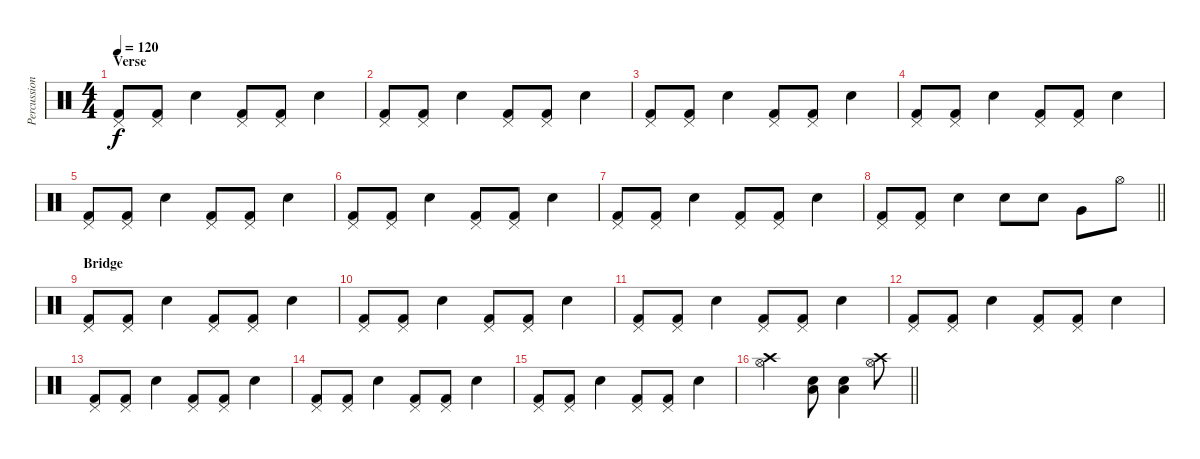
\track ("Percussion" "Percussion") {instrument percussion}
\staff {score}
\articulation defaults
\ts (4 4)
\section ("" "Verse")
\tempo 120
\clef neutral
\ks c
("Kick (hit) 2" "Pedal Hi-Hat (hit)").8{dy f} ("Kick (hit) 2" "Pedal Hi-Hat (hit)").8 "Electric Snare (hit)".4 ("Kick (hit) 2" "Pedal Hi-Hat (hit)").8 ("Kick (hit) 2" "Pedal Hi-Hat (hit)").8 "Electric Snare (hit)".4 |
("Kick (hit) 2" "Pedal Hi-Hat (hit)").8 ("Kick (hit) 2" "Pedal Hi-Hat (hit)").8 "Electric Snare (hit)".4 ("Kick (hit) 2" "Pedal Hi-Hat (hit)").8 ("Kick (hit) 2" "Pedal Hi-Hat (hit)").8 "Electric Snare (hit)".4 |
("Kick (hit) 2" "Pedal Hi-Hat (hit)").8 ("Kick (hit) 2" "Pedal Hi-Hat (hit)").8 "Electric Snare (hit)".4 ("Kick (hit) 2" "Pedal Hi-Hat (hit)").8 ("Kick (hit) 2" "Pedal Hi-Hat (hit)").8 "Electric Snare (hit)".4 |
("Kick (hit) 2" "Pedal Hi-Hat (hit)").8 ("Kick (hit) 2" "Pedal Hi-Hat (hit)").8 "Electric Snare (hit)".4 ("Kick (hit) 2" "Pedal Hi-Hat (hit)").8 ("Kick (hit) 2" "Pedal Hi-Hat (hit)").8 "Electric Snare (hit)".4 |
("Kick (hit) 2" "Pedal Hi-Hat (hit)").8 ("Kick (hit) 2" "Pedal Hi-Hat (hit)").8 "Electric Snare (hit)".4 ("Kick (hit) 2" "Pedal Hi-Hat (hit)").8 ("Kick (hit) 2" "Pedal Hi-Hat (hit)").8 "Electric Snare (hit)".4 |
("Kick (hit) 2" "Pedal Hi-Hat (hit)").8 ("Kick (hit) 2" "Pedal Hi-Hat (hit)").8 "Electric Snare (hit)".4 ("Kick (hit) 2" "Pedal Hi-Hat (hit)").8 ("Kick (hit) 2" "Pedal Hi-Hat (hit)").8 "Electric Snare (hit)".4 |
("Kick (hit) 2" "Pedal Hi-Hat (hit)").8 ("Kick (hit) 2" "Pedal Hi-Hat (hit)").8 "Electric Snare (hit)".4 ("Kick (hit) 2" "Pedal Hi-Hat (hit)").8 ("Kick (hit) 2" "Pedal Hi-Hat (hit)").8 "Electric Snare (hit)".4 |
\barLineRight lightlight
("Kick (hit) 2" "Pedal Hi-Hat (hit)").8 ("Kick (hit) 2" "Pedal Hi-Hat (hit)").8 "Electric Snare (hit)".4 "Electric Snare (hit)".8 "Electric Snare (hit)".8 "Very Low Tom (hit)".8 "Hi-Hat (open)".8 |
\section ("" "Bridge")
("Kick (hit) 2" "Pedal Hi-Hat (hit)").8 ("Kick (hit) 2" "Pedal Hi-Hat (hit)").8 "Electric Snare (hit)".4 ("Kick (hit) 2" "Pedal Hi-Hat (hit)").8 ("Kick (hit) 2" "Pedal Hi-Hat (hit)").8 "Electric Snare (hit)".4 |
("Kick (hit) 2" "Pedal Hi-Hat (hit)").8 ("Kick (hit) 2" "Pedal Hi-Hat (hit)").8 "Electric Snare (hit)".4 ("Kick (hit) 2" "Pedal Hi-Hat (hit)").8 ("Kick (hit) 2" "Pedal Hi-Hat (hit)").8 "Electric Snare (hit)".4 |
("Kick (hit) 2" "Pedal Hi-Hat (hit)").8 ("Kick (hit) 2" "Pedal Hi-Hat (hit)").8 "Electric Snare (hit)".4 ("Kick (hit) 2" "Pedal Hi-Hat (hit)").8 ("Kick (hit) 2" "Pedal Hi-Hat (hit)").8 "Electric Snare (hit)".4 |
("Kick (hit) 2" "Pedal Hi-Hat (hit)").8 ("Kick (hit) 2" "Pedal Hi-Hat (hit)").8 "Electric Snare (hit)".4 ("Kick (hit) 2" "Pedal Hi-Hat (hit)").8 ("Kick (hit) 2" "Pedal Hi-Hat (hit)").8 "Electric Snare (hit)".4 |
("Kick (hit) 2" "Pedal Hi-Hat (hit)").8 ("Kick (hit) 2" "Pedal Hi-Hat (hit)").8 "Electric Snare (hit)".4 ("Kick (hit) 2" "Pedal Hi-Hat (hit)").8 ("Kick (hit) 2" "Pedal Hi-Hat (hit)").8 "Electric Snare (hit)".4 |
("Kick (hit) 2" "Pedal Hi-Hat (hit)").8 ("Kick (hit) 2" "Pedal Hi-Hat (hit)").8 "Electric Snare (hit)".4 ("Kick (hit) 2" "Pedal Hi-Hat (hit)").8 ("Kick (hit) 2" "Pedal Hi-Hat (hit)").8 "Electric Snare (hit)".4 |
("Kick (hit) 2" "Pedal Hi-Hat (hit)").8 ("Kick (hit) 2" "Pedal Hi-Hat (hit)").8 "Electric Snare (hit)".4 ("Kick (hit) 2" "Pedal Hi-Hat (hit)").8 ("Kick (hit) 2" "Pedal Hi-Hat (hit)").8 "Electric Snare (hit)".4 |
\barLineRight lightlight
("Hi-Hat (open)" "Crash high (hit)").2 ("Electric Snare (hit)" "Low Tom (hit)").8 ("Electric Snare (hit)" "Low Tom (hit)").4 ("Hi-Hat (open)" "Crash high (hit)").8
